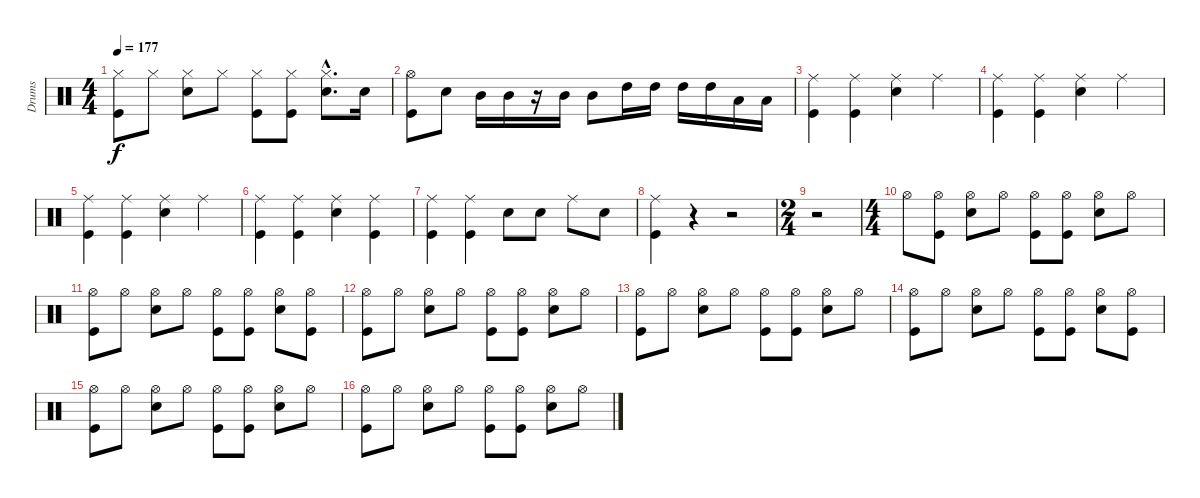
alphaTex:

\track ("Drums" "Drums") {instrument percussion}
\staff {score}
\articulation defaults
\ts (4 4)
\tempo 177
\clef neutral
\ks c
("Hi-Hat (closed)" "Kick (hit)").8{dy f} "Hi-Hat (closed)".8 ("Hi-Hat (closed)" "Snare (hit) 2").8 "Hi-Hat (closed)".8 ("Hi-Hat (closed)" "Kick (hit)").8 ("Hi-Hat (closed)" "Kick (hit)").8 ("Hi-Hat (closed)"{hac} "Snare (hit) 2"{hac}).8{d} "Snare (hit) 2".16 |
("Hi-Hat (open)" "Kick (hit)").8 "Snare (hit) 2".8 "Mid Tom (hit)".16 "Mid Tom (hit)".16 r.16 "Mid Tom (hit)".16 "Mid Tom (hit)".8 "High Tom (hit)".16 "High Tom (hit)".16 "High Tom (hit)".16 "High Tom (hit)".16 "Low Tom (hit)".16 "Low Tom (hit)".16 |
("Ride (middle)" "Kick (hit)").4 ("Ride (middle)" "Kick (hit)").4 ("Ride (middle)" "Snare (hit) 2").4 "Ride (middle)".4 |
("Ride (middle)" "Kick (hit)").4 ("Ride (middle)" "Kick (hit)").4 ("Ride (middle)" "Snare (hit) 2").4 "Ride (middle)".4 |
("Ride (middle)" "Kick (hit)").4 ("Ride (middle)" "Kick (hit)").4 ("Ride (middle)" "Snare (hit) 2").4 "Ride (middle)".4 |
("Ride (middle)" "Kick (hit)").4 ("Ride (middle)" "Kick (hit)").4 ("Ride (middle)" "Snare (hit) 2").4 ("Ride (middle)" "Kick (hit)").4 |
("Ride (middle)" "Kick (hit)").4 ("Ride (middle)" "Kick (hit)").4 "Snare (hit) 2".8 "Snare (hit) 2".8 "Ride (middle)".8 "Snare (hit) 2".8 |
("Ride (middle)" "Kick (hit)").4 r.4 r.2 |
\ts (2 4)
r.2 |
\ts (4 4)
"Hi-Hat (open)".8 ("Hi-Hat (open)" "Kick (hit)").8 ("Hi-Hat (open)" "Snare (hit) 2").8 "Hi-Hat (open)".8 ("Hi-Hat (open)" "Kick (hit)").8 ("Hi-Hat (open)" "Kick (hit)").8 ("Hi-Hat (open)" "Snare (hit) 2").8 "Hi-Hat (open)".8 |
("Hi-Hat (open)" "Kick (hit)").8 "Hi-Hat (open)".8 ("Hi-Hat (open)" "Snare (hit) 2").8 "Hi-Hat (open)".8 ("Hi-Hat (open)" "Kick (hit)").8 ("Hi-Hat (open)" "Kick (hit)").8 ("Hi-Hat (open)" "Snare (hit) 2").8 ("Hi-Hat (open)" "Kick (hit)").8 |
("Hi-Hat (open)" "Kick (hit)").8 "Hi-Hat (open)".8 ("Hi-Hat (open)" "Snare (hit) 2").8 "Hi-Hat (open)".8 ("Hi-Hat (open)" "Kick (hit)").8 ("Hi-Hat (open)" "Kick (hit)").8 ("Hi-Hat (open)" "Snare (hit) 2").8 "Hi-Hat (open)".8 |
("Hi-Hat (open)" "Kick (hit)").8 "Hi-Hat (open)".8 ("Hi-Hat (open)" "Snare (hit) 2").8 "Hi-Hat (open)".8 ("Hi-Hat (open)" "Kick (hit)").8 ("Hi-Hat (open)" "Kick (hit)").8 ("Hi-Hat (open)" "Snare (hit) 2").8 "Hi-Hat (open)".8 |
("Hi-Hat (open)" "Kick (hit)").8 "Hi-Hat (open)".8 ("Hi-Hat (open)" "Snare (hit) 2").8 "Hi-Hat (open)".8 ("Hi-Hat (open)" "Kick (hit)").8 ("Hi-Hat (open)" "Kick (hit)").8 ("Hi-Hat (open)" "Snare (hit) 2").8 ("Hi-Hat (open)" "Kick (hit)").8 |
("Hi-Hat (open)" "Kick (hit)").8 "Hi-Hat (open)".8 ("Hi-Hat (open)" "Snare (hit) 2").8 "Hi-Hat (open)".8 ("Hi-Hat (open)" "Kick (hit)").8 ("Hi-Hat (open)" "Kick (hit)").8 ("Hi-Hat (open)" "Snare (hit) 2").8 "Hi-Hat (open)".8 |
("Hi-Hat (open)" "Kick (hit)").8 "Hi-Hat (open)".8 ("Hi-Hat (open)" "Snare (hit) 2").8 "Hi-Hat (open)".8 ("Hi-Hat (open)" "Kick (hit)").8 ("Hi-Hat (open)" "Kick (hit)").8 ("Hi-Hat (open)" "Snare (hit) 2").8 "Hi-Hat (open)".8
